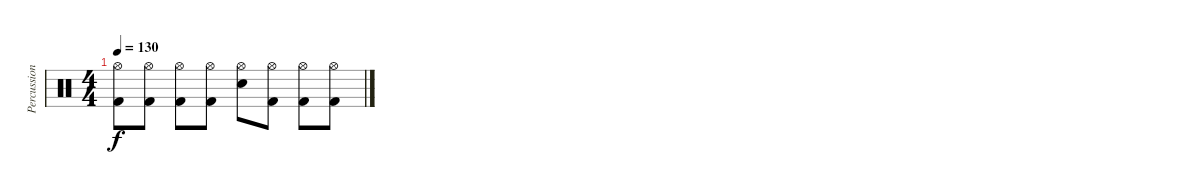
\track ("Percussion" "Percussion") {instrument percussion}
\staff {score}
\articulation defaults
\ts (4 4)
\tempo 130
\clef neutral
\ks c
("Hi-Hat (open)" "Kick (hit) 2").8{dy f} ("Hi-Hat (open)" "Kick (hit) 2").8 ("Hi-Hat (open)" "Kick (hit) 2").8 ("Hi-Hat (open)" "Kick (hit) 2").8 ("Hi-Hat (open)" "Snare (hit) 2").8 ("Hi-Hat (open)" "Kick (hit) 2").8 ("Hi-Hat (open)" "Kick (hit) 2").8 ("Hi-Hat (open)" "Kick (hit) 2").8
